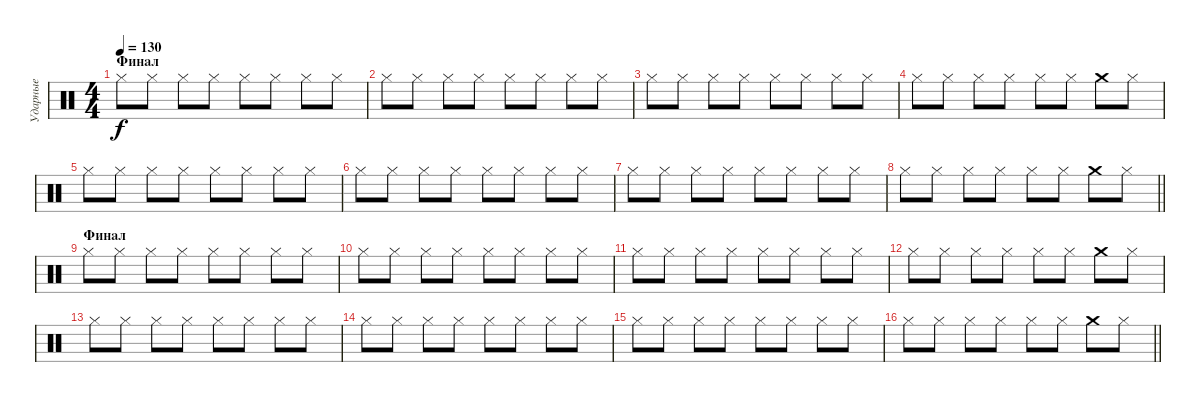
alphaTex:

\track ("Ударные" "Ударные") {instrument percussion}
\staff {score}
\articulation defaults
\ts (4 4)
\section ("" "Финал")
\tempo 130
\clef neutral
\ks c "Hi-Hat (closed)".8{dy f} "Hi-Hat (closed)".8 "Hi-Hat (closed)".8 "Hi-Hat (closed)".8 "Hi-Hat (closed)".8 "Hi-Hat (closed)".8 "Hi-Hat (closed)".8 "Hi-Hat (closed)".8
|
"Hi-Hat (closed)".8 "Hi-Hat (closed)".8 "Hi-Hat (closed)".8 "Hi-Hat (closed)".8 "Hi-Hat (closed)".8 "Hi-Hat (closed)".8 "Hi-Hat (closed)".8 "Hi-Hat (closed)".8 |
"Hi-Hat (closed)".8 "Hi-Hat (closed)".8 "Hi-Hat (closed)".8 "Hi-Hat (closed)".8 "Hi-Hat (closed)".8 "Hi-Hat (closed)".8 "Hi-Hat (closed)".8 "Hi-Hat (closed)".8 |
"Hi-Hat (closed)".8 "Hi-Hat (closed)".8 "Hi-Hat (closed)".8 "Hi-Hat (closed)".8 "Hi-Hat (closed)".8 "Hi-Hat (closed)".8 "Crash medium (hit)".8 "Hi-Hat (closed)".8 |
"Hi-Hat (closed)".8 "Hi-Hat (closed)".8 "Hi-Hat (closed)".8 "Hi-Hat (closed)".8 "Hi-Hat (closed)".8 "Hi-Hat (closed)".8 "Hi-Hat (closed)".8 "Hi-Hat (closed)".8 |
"Hi-Hat (closed)".8 "Hi-Hat (closed)".8 "Hi-Hat (closed)".8 "Hi-Hat (closed)".8 "Hi-Hat (closed)".8 "Hi-Hat (closed)".8 "Hi-Hat (closed)".8 "Hi-Hat (closed)".8 |
"Hi-Hat (closed)".8 "Hi-Hat (closed)".8 "Hi-Hat (closed)".8 "Hi-Hat (closed)".8 "Hi-Hat (closed)".8 "Hi-Hat (closed)".8 "Hi-Hat (closed)".8 "Hi-Hat (closed)".8 |
\barLineRight lightlight "Hi-Hat (closed)".8 "Hi-Hat (closed)".8 "Hi-Hat (closed)".8 "Hi-Hat (closed)".8 "Hi-Hat (closed)".8 "Hi-Hat (closed)".8 "Crash medium (hit)".8 "Hi-Hat (closed)".8
|
\section ("" "Финал")
"Hi-Hat (closed)".8 "Hi-Hat (closed)".8 "Hi-Hat (closed)".8 "Hi-Hat (closed)".8 "Hi-Hat (closed)".8 "Hi-Hat (closed)".8 "Hi-Hat (closed)".8 "Hi-Hat (closed)".8 |
"Hi-Hat (closed)".8 "Hi-Hat (closed)".8 "Hi-Hat (closed)".8 "Hi-Hat (closed)".8 "Hi-Hat (closed)".8 "Hi-Hat (closed)".8 "Hi-Hat (closed)".8 "Hi-Hat (closed)".8 |
"Hi-Hat (closed)".8 "Hi-Hat (closed)".8 "Hi-Hat (closed)".8 "Hi-Hat (closed)".8 "Hi-Hat (closed)".8 "Hi-Hat (closed)".8 "Hi-Hat (closed)".8 "Hi-Hat (closed)".8 |
"Hi-Hat (closed)".8 "Hi-Hat (closed)".8 "Hi-Hat (closed)".8 "Hi-Hat (closed)".8 "Hi-Hat (closed)".8 "Hi-Hat (closed)".8 "Crash medium (hit)".8 "Hi-Hat (closed)".8 |
"Hi-Hat (closed)".8 "Hi-Hat (closed)".8 "Hi-Hat (closed)".8 "Hi-Hat (closed)".8 "Hi-Hat (closed)".8 "Hi-Hat (closed)".8 "Hi-Hat (closed)".8 "Hi-Hat (closed)".8 |
"Hi-Hat (closed)".8 "Hi-Hat (closed)".8 "Hi-Hat (closed)".8 "Hi-Hat (closed)".8 "Hi-Hat (closed)".8 "Hi-Hat (closed)".8 "Hi-Hat (closed)".8 "Hi-Hat (closed)".8 |
"Hi-Hat (closed)".8 "Hi-Hat (closed)".8 "Hi-Hat (closed)".8 "Hi-Hat (closed)".8 "Hi-Hat (closed)".8 "Hi-Hat (closed)".8 "Hi-Hat (closed)".8 "Hi-Hat (closed)".8 |
\barLineRight lightlight "Hi-Hat (closed)".8 "Hi-Hat (closed)".8 "Hi-Hat (closed)".8 "Hi-Hat (closed)".8 "Hi-Hat (closed)".8 "Hi-Hat (closed)".8 "Crash medium (hit)".8 "Hi-Hat (closed)".8
